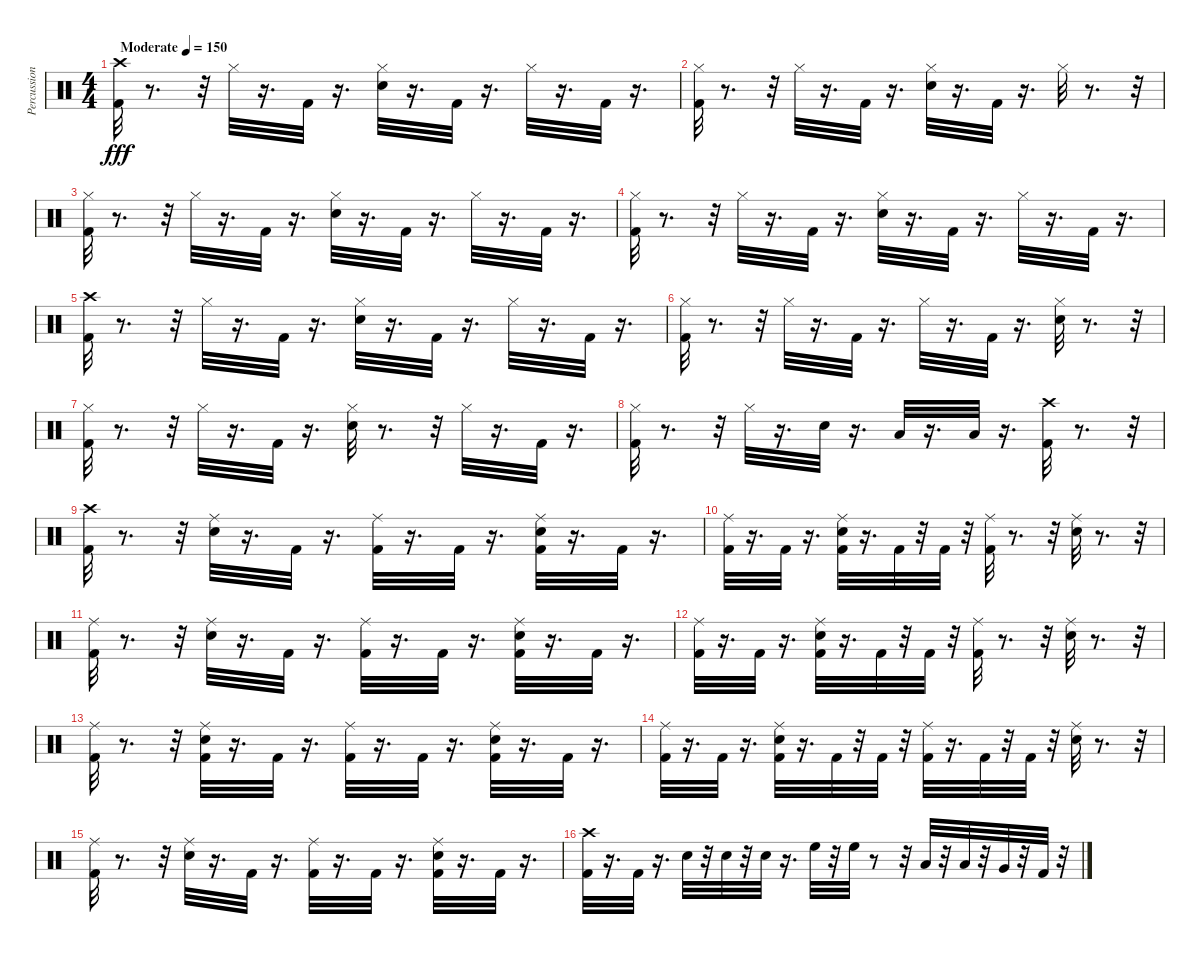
\track ("Percussion" "Percussion") {instrument percussion}
\staff {score}
\articulation defaults
\ts (4 4)
\tempo (150 "Moderate")
\clef neutral
\ks c
("Crash high (hit)" "Kick (hit) 2").32{dy fff} r.8{d} r.32 "Hi-Hat (closed)".32 r.16{d} "Kick (hit) 2".32 r.16{d} ("Hi-Hat (closed)" "Snare (hit) 2").32 r.16{d} "Kick (hit) 2".32 r.16{d} "Hi-Hat (closed)".32 r.16{d} "Kick (hit) 2".32 r.16{d} |
("Kick (hit) 2" "Hi-Hat (closed)").32 r.8{d} r.32 "Hi-Hat (closed)".32 r.16{d} "Kick (hit) 2".32 r.16{d} ("Hi-Hat (closed)" "Snare (hit) 2").32 r.16{d} "Kick (hit) 2".32 r.16{d} "Hi-Hat (closed)".32 r.8{d} r.32 |
("Kick (hit) 2" "Hi-Hat (closed)").32 r.8{d} r.32 "Hi-Hat (closed)".32 r.16{d} "Kick (hit) 2".32 r.16{d} ("Hi-Hat (closed)" "Snare (hit) 2").32 r.16{d} "Kick (hit) 2".32 r.16{d} "Hi-Hat (closed)".32 r.16{d} "Kick (hit) 2".32 r.16{d} |
("Hi-Hat (closed)" "Kick (hit) 2").32 r.8{d} r.32 "Hi-Hat (closed)".32 r.16{d} "Kick (hit) 2".32 r.16{d} ("Snare (hit) 2" "Hi-Hat (closed)").32 r.16{d} "Kick (hit) 2".32 r.16{d} "Hi-Hat (closed)".32 r.16{d} "Kick (hit) 2".32 r.16{d} |
("Kick (hit) 2" "Crash high (hit)").32 r.8{d} r.32 "Hi-Hat (closed)".32 r.16{d} "Kick (hit) 2".32 r.16{d} ("Hi-Hat (closed)" "Snare (hit) 2").32 r.16{d} "Kick (hit) 2".32 r.16{d} "Hi-Hat (closed)".32 r.16{d} "Kick (hit) 2".32 r.16{d} |
("Kick (hit) 2" "Hi-Hat (closed)").32 r.8{d} r.32 "Hi-Hat (closed)".32 r.16{d} "Kick (hit) 2".32 r.16{d} "Hi-Hat (closed)".32 r.16{d} "Kick (hit) 2".32 r.16{d} ("Snare (hit) 2" "Hi-Hat (closed)").32 r.8{d} r.32 |
("Kick (hit) 2" "Hi-Hat (closed)").32 r.8{d} r.32 "Hi-Hat (closed)".32 r.16{d} "Kick (hit) 2".32 r.16{d} ("Hi-Hat (closed)" "Snare (hit) 2").32 r.8{d} r.32 "Hi-Hat (closed)".32 r.16{d} "Kick (hit) 2".32 r.16{d} |
("Hi-Hat (closed)" "Kick (hit) 2").32 r.8{d} r.32 "Hi-Hat (closed)".32 r.16{d} "Electric Snare (hit)".32 r.16{d} "Low Tom (hit)".32 r.16{d} "Low Tom (hit)".32 r.16{d} ("Kick (hit) 2" "Crash high (hit)").32 r.8{d} r.32 |
("Crash high (hit)" "Kick (hit) 2").32 r.8{d} r.32 ("Snare (hit) 2" "Ride (middle)").32 r.16{d} "Kick (hit) 2".32 r.16{d} ("Kick (hit) 2" "Ride (middle)").32 r.16{d} "Kick (hit) 2".32 r.16{d} ("Snare (hit) 2" "Ride (middle)" "Kick (hit) 2").32 r.16{d} "Kick (hit) 2".32 r.16{d} |
("Ride (middle)" "Kick (hit) 2").32 r.16{d} "Kick (hit) 2".32 r.16{d} ("Ride (middle)" "Kick (hit) 2" "Snare (hit) 2").32 r.16{d} "Kick (hit) 2".32 r.32 "Kick (hit) 2".32 r.32 ("Ride (middle)" "Kick (hit) 2").32 r.8{d} r.32 ("Snare (hit) 2" "Ride (middle)").32 r.8{d} r.32 |
("Ride (middle)" "Kick (hit) 2").32 r.8{d} r.32 ("Snare (hit) 2" "Ride (middle)").32 r.16{d} "Kick (hit) 2".32 r.16{d} ("Kick (hit) 2" "Ride (middle)").32 r.16{d} "Kick (hit) 2".32 r.16{d} ("Ride (middle)" "Snare (hit) 2" "Kick (hit) 2").32 r.16{d} "Kick (hit) 2".32 r.16{d} |
("Ride (middle)" "Kick (hit) 2").32 r.16{d} "Kick (hit) 2".32 r.16{d} ("Ride (middle)" "Kick (hit) 2" "Snare (hit) 2").32 r.16{d} "Kick (hit) 2".32 r.32 "Kick (hit) 2".32 r.32 ("Ride (middle)" "Kick (hit) 2").32 r.8{d} r.32 ("Snare (hit) 2" "Ride (middle)").32 r.8{d} r.32 |
("Kick (hit) 2" "Ride (middle)").32 r.8{d} r.32 ("Snare (hit) 2" "Ride (middle)" "Kick (hit) 2").32 r.16{d} "Kick (hit) 2".32 r.16{d} ("Kick (hit) 2" "Ride (middle)").32 r.16{d} "Kick (hit) 2".32 r.16{d} ("Ride (middle)" "Snare (hit) 2" "Kick (hit) 2").32 r.16{d} "Kick (hit) 2".32 r.16{d} |
("Ride (middle)" "Kick (hit) 2").32 r.16{d} "Kick (hit) 2".32 r.16{d} ("Ride (middle)" "Kick (hit) 2" "Snare (hit) 2").32 r.16{d} "Kick (hit) 2".32 r.32 "Kick (hit) 2".32 r.32 ("Ride (middle)" "Kick (hit) 2").32 r.16{d} "Kick (hit) 2".32 r.32 "Kick (hit) 2".32 r.32 ("Snare (hit) 2" "Ride (middle)").32 r.8{d} r.32 |
("Kick (hit) 2" "Ride (middle)").32 r.8{d} r.32 ("Snare (hit) 2" "Ride (middle)").32 r.16{d} "Kick (hit) 2".32 r.16{d} ("Kick (hit) 2" "Ride (middle)").32 r.16{d} "Kick (hit) 2".32 r.16{d} ("Ride (middle)" "Electric Snare (hit)" "Kick (hit) 2").32 r.16{d} "Kick (hit) 2".32 r.16{d} |
("Crash high (hit)" "Kick (hit) 2").32 r.16{d} "Kick (hit) 2".32 r.16{d} "Electric Snare (hit)".32 r.32 "Snare (hit) 2".32 r.32 "Electric Snare (hit)".32 r.16{d} "High Floor Tom (hit)".32 r.32 "High Floor Tom (hit)".32 r.8 r.32 "Low Tom (hit)".32 r.32 "Low Tom (hit)".32 r.32 "Very Low Tom (hit)".32 r.32 "Kick (hit) 2".32 r.32
